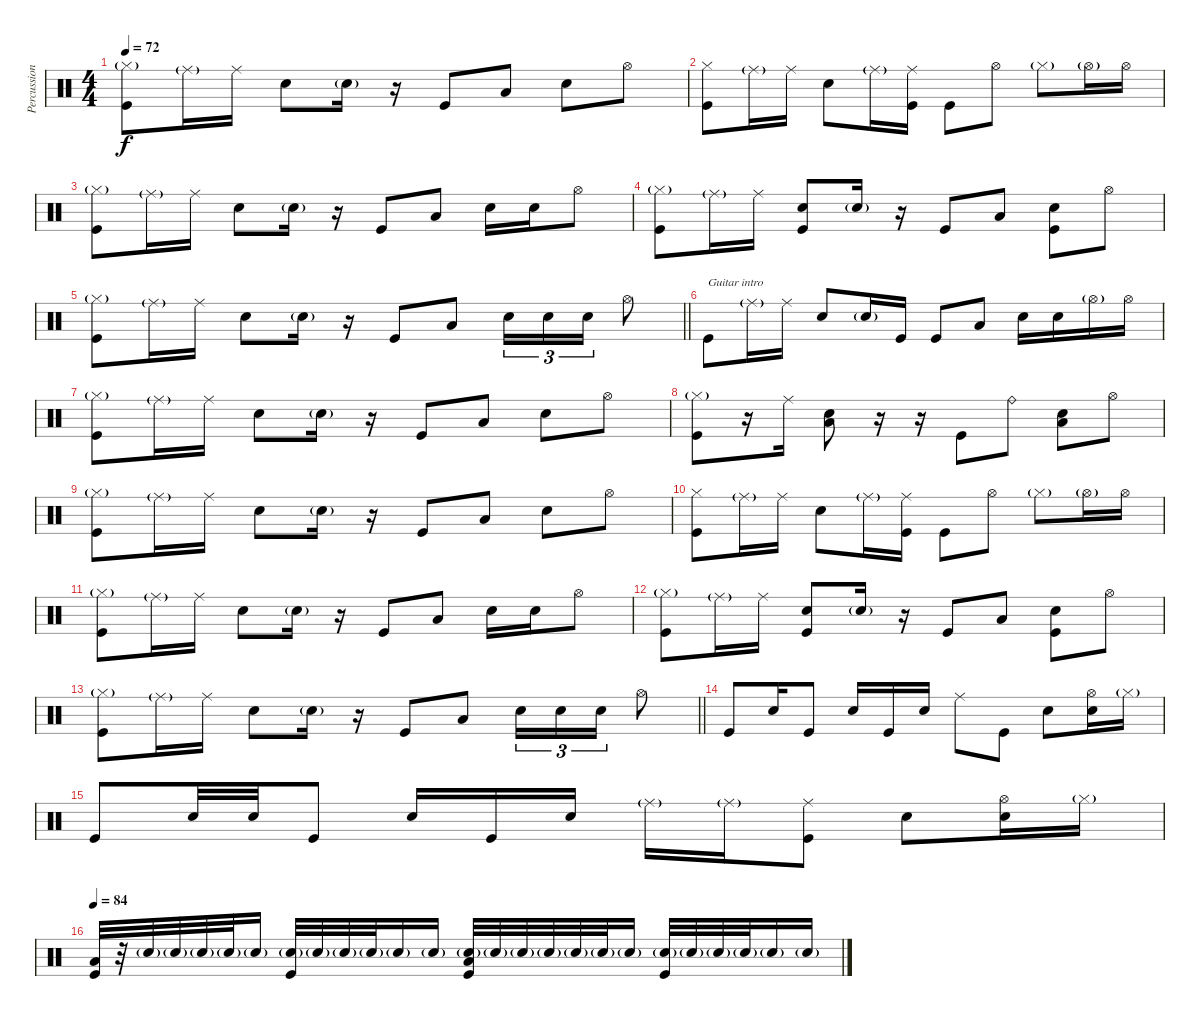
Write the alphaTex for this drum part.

\track ("Percussion" "Percussion") {instrument percussion}
\staff {score}
\articulation defaults
\ts (4 4)
\tempo 72
\clef neutral
\ks c
("Hi-Hat (closed)"{g} "Kick (hit)").8{dy f} "Ride (middle)"{g}.16 "Ride (middle)".16 "Snare (hit) 2".8 "Snare (hit) 2"{g}.16 r.16 "Kick (hit)".8 "Low Floor Tom (hit)".8 "Snare (hit) 2".8 "Hi-Hat (open)".8 |
("Hi-Hat (closed)" "Kick (hit)").8 "Ride (middle)"{g}.16 "Ride (middle)".16 "Snare (hit) 2".8 "Ride (middle)"{g}.16 ("Ride (middle)" "Kick (hit)").16 "Kick (hit)".8 "Hi-Hat (open)".8 "Hi-Hat (closed)"{g}.8 "Hi-Hat (open)"{g}.16 "Hi-Hat (open)".16 |
("Hi-Hat (closed)"{g} "Kick (hit)").8 "Ride (middle)"{g}.16 "Ride (middle)".16 "Snare (hit) 2".8 "Snare (hit) 2"{g}.16 r.16 "Kick (hit)".8 "Low Floor Tom (hit)".8 "Snare (hit) 2".16 "Snare (hit) 2".16 "Hi-Hat (open)".8 |
("Hi-Hat (closed)"{g} "Kick (hit)").8 "Ride (middle)"{g}.16 "Ride (middle)".16 ("Snare (hit) 2" "Kick (hit)").8 "Snare (hit) 2"{g}.16 r.16 "Kick (hit)".8 "Low Floor Tom (hit)".8 ("Snare (hit) 2" "Kick (hit)").8 "Hi-Hat (open)".8 |
\barLineRight lightlight
("Hi-Hat (closed)"{g} "Kick (hit)").8 "Ride (middle)"{g}.16 "Ride (middle)".16 "Snare (hit) 2".8 "Snare (hit) 2"{g}.16 r.16 "Kick (hit)".8 "Low Floor Tom (hit)".8 "Snare (hit) 2".16{tu (3 2)} "Snare (hit) 2".16{tu (3 2)} "Snare (hit) 2".16{tu (3 2)} "Hi-Hat (open)".8 |
"Kick (hit)".8{txt "Guitar intro"} "Ride (middle)"{g}.16 "Ride (middle)".16 "Snare (hit) 2".8 "Snare (hit) 2"{g}.16 "Kick (hit)".16 "Kick (hit)".8 "Low Floor Tom (hit)".8 "Snare (hit) 2".16 "Snare (hit) 2".16 "Hi-Hat (open)"{g}.16 "Hi-Hat (open)".16 |
("Hi-Hat (closed)"{g} "Kick (hit)").8 "Ride (middle)"{g}.16 "Ride (middle)".16 "Snare (hit) 2".8 "Snare (hit) 2"{g}.16 r.16 "Kick (hit)".8 "Low Floor Tom (hit)".8 "Snare (hit) 2".8 "Hi-Hat (open)".8 |
("Hi-Hat (closed)"{g} "Kick (hit)").8 r.16 "Ride (middle)".16 ("Snare (hit) 2" "Low Floor Tom (hit)").8 r.16 r.16 "Kick (hit)".8 "Ride (bell)".8 ("Snare (hit) 2" "Low Floor Tom (hit)").8 "Hi-Hat (open)".8 |
("Hi-Hat (closed)"{g} "Kick (hit)").8 "Ride (middle)"{g}.16 "Ride (middle)".16 "Snare (hit) 2".8 "Snare (hit) 2"{g}.16 r.16 "Kick (hit)".8 "Low Floor Tom (hit)".8 "Snare (hit) 2".8 "Hi-Hat (open)".8 |
("Hi-Hat (closed)" "Kick (hit)").8 "Ride (middle)"{g}.16 "Ride (middle)".16 "Snare (hit) 2".8 "Ride (middle)"{g}.16 ("Ride (middle)" "Kick (hit)").16 "Kick (hit)".8 "Hi-Hat (open)".8 "Hi-Hat (closed)"{g}.8 "Hi-Hat (open)"{g}.16 "Hi-Hat (open)".16 |
("Hi-Hat (closed)"{g} "Kick (hit)").8 "Ride (middle)"{g}.16 "Ride (middle)".16 "Snare (hit) 2".8 "Snare (hit) 2"{g}.16 r.16 "Kick (hit)".8 "Low Floor Tom (hit)".8 "Snare (hit) 2".16 "Snare (hit) 2".16 "Hi-Hat (open)".8 |
("Hi-Hat (closed)"{g} "Kick (hit)").8 "Ride (middle)"{g}.16 "Ride (middle)".16 ("Snare (hit) 2" "Kick (hit)").8 "Snare (hit) 2"{g}.16 r.16 "Kick (hit)".8 "Low Floor Tom (hit)".8 ("Snare (hit) 2" "Kick (hit)").8 "Hi-Hat (open)".8 |
\barLineRight lightlight
("Hi-Hat (closed)"{g} "Kick (hit)").8 "Ride (middle)"{g}.16 "Ride (middle)".16 "Snare (hit) 2".8 "Snare (hit) 2"{g}.16 r.16 "Kick (hit)".8 "Low Floor Tom (hit)".8 "Snare (hit) 2".16{tu (3 2)} "Snare (hit) 2".16{tu (3 2)} "Snare (hit) 2".16{tu (3 2)} "Hi-Hat (open)".8 |
"Kick (hit)".8 "Snare (hit) 2".16 "Kick (hit)".8 "Snare (hit) 2".16 "Kick (hit)".16 "Snare (hit) 2".16 "Ride (middle)".8 "Kick (hit)".8 "Snare (hit) 2".8 ("Hi-Hat (open)" "Snare (hit) 2").16 "Hi-Hat (closed)"{g}.16 |
"Kick (hit)".8 "Snare (hit) 2".32 "Snare (hit) 2".32 "Kick (hit)".8 "Snare (hit) 2".16 "Kick (hit)".16 "Snare (hit) 2".16 "Ride (middle)"{g}.16 "Ride (middle)"{g}.16 ("Ride (middle)" "Kick (hit)").8 "Snare (hit) 2".8 ("Hi-Hat (open)" "Snare (hit) 2").16 "Hi-Hat (closed)"{g}.16 |
\tempo 84
("Low Floor Tom (hit)" "Kick (hit)").32 r.32 "Snare (hit) 2"{g}.32 "Snare (hit) 2"{g}.32 "Snare (hit) 2"{g}.32 "Snare (hit) 2"{g}.32 "Snare (hit) 2"{g}.16 ("Snare (hit) 2"{g} "Kick (hit)").32 "Snare (hit) 2"{g}.32 "Snare (hit) 2"{g}.32 "Snare (hit) 2"{g}.32 "Snare (hit) 2"{g}.16 "Snare (hit) 2"{g}.16 ("Low Floor Tom (hit)" "Snare (hit) 2"{g} "Kick (hit)").32 "Snare (hit) 2"{g}.32 "Snare (hit) 2"{g}.32 "Snare (hit) 2"{g}.32 "Snare (hit) 2"{g}.32 "Snare (hit) 2"{g}.32 "Snare (hit) 2"{g}.16 ("Snare (hit) 2"{g} "Kick (hit)").32 "Snare (hit) 2"{g}.32 "Snare (hit) 2"{g}.32 "Snare (hit) 2"{g}.32 "Snare (hit) 2"{g}.16 "Snare (hit) 2"{g}.16
